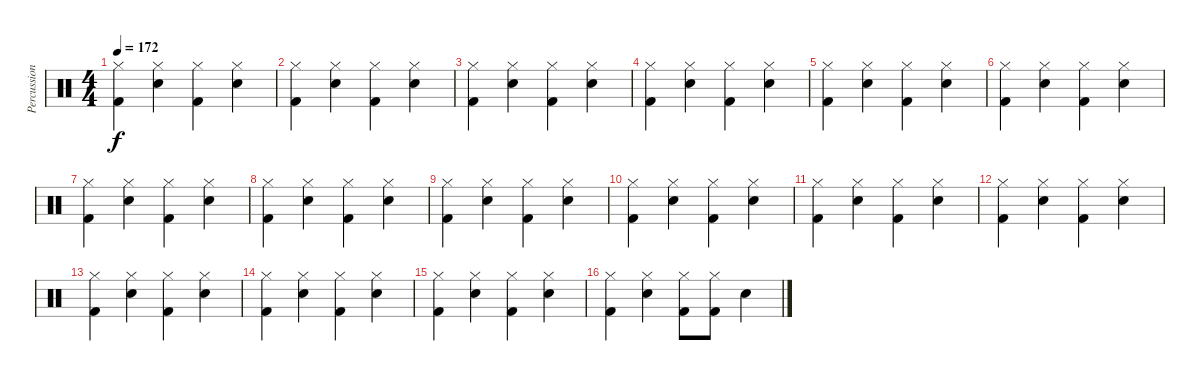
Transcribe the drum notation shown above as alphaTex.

\track ("Percussion" "Percussion") {instrument percussion}
\staff {score}
\articulation defaults
\ts (4 4)
\tempo 172
\clef neutral
\ks c
("Hi-Hat (closed)" "Kick (hit) 2").4{dy f} ("Hi-Hat (closed)" "Snare (hit) 2").4 ("Hi-Hat (closed)" "Kick (hit) 2").4 ("Hi-Hat (closed)" "Snare (hit) 2").4 |
("Hi-Hat (closed)" "Kick (hit) 2").4 ("Hi-Hat (closed)" "Snare (hit) 2").4 ("Hi-Hat (closed)" "Kick (hit) 2").4 ("Hi-Hat (closed)" "Snare (hit) 2").4 |
("Hi-Hat (closed)" "Kick (hit) 2").4 ("Hi-Hat (closed)" "Snare (hit) 2").4 ("Hi-Hat (closed)" "Kick (hit) 2").4 ("Hi-Hat (closed)" "Snare (hit) 2").4 |
("Hi-Hat (closed)" "Kick (hit) 2").4 ("Hi-Hat (closed)" "Snare (hit) 2").4 ("Hi-Hat (closed)" "Kick (hit) 2").4 ("Hi-Hat (closed)" "Snare (hit) 2").4 |
("Hi-Hat (closed)" "Kick (hit) 2").4 ("Hi-Hat (closed)" "Snare (hit) 2").4 ("Hi-Hat (closed)" "Kick (hit) 2").4 ("Hi-Hat (closed)" "Snare (hit) 2").4 |
("Hi-Hat (closed)" "Kick (hit) 2").4 ("Hi-Hat (closed)" "Snare (hit) 2").4 ("Hi-Hat (closed)" "Kick (hit) 2").4 ("Hi-Hat (closed)" "Snare (hit) 2").4 |
("Hi-Hat (closed)" "Kick (hit) 2").4 ("Hi-Hat (closed)" "Snare (hit) 2").4 ("Hi-Hat (closed)" "Kick (hit) 2").4 ("Hi-Hat (closed)" "Snare (hit) 2").4 |
("Hi-Hat (closed)" "Kick (hit) 2").4 ("Hi-Hat (closed)" "Snare (hit) 2").4 ("Hi-Hat (closed)" "Kick (hit) 2").4 ("Hi-Hat (closed)" "Snare (hit) 2").4 |
("Hi-Hat (closed)" "Kick (hit) 2").4 ("Hi-Hat (closed)" "Snare (hit) 2").4 ("Hi-Hat (closed)" "Kick (hit) 2").4 ("Hi-Hat (closed)" "Snare (hit) 2").4 |
("Hi-Hat (closed)" "Kick (hit) 2").4 ("Hi-Hat (closed)" "Snare (hit) 2").4 ("Hi-Hat (closed)" "Kick (hit) 2").4 ("Hi-Hat (closed)" "Snare (hit) 2").4 |
("Hi-Hat (closed)" "Kick (hit) 2").4 ("Hi-Hat (closed)" "Snare (hit) 2").4 ("Hi-Hat (closed)" "Kick (hit) 2").4 ("Hi-Hat (closed)" "Snare (hit) 2").4 |
("Hi-Hat (closed)" "Kick (hit) 2").4 ("Hi-Hat (closed)" "Snare (hit) 2").4 ("Hi-Hat (closed)" "Kick (hit) 2").4 ("Hi-Hat (closed)" "Snare (hit) 2").4 |
("Hi-Hat (closed)" "Kick (hit) 2").4 ("Hi-Hat (closed)" "Snare (hit) 2").4 ("Hi-Hat (closed)" "Kick (hit) 2").4 ("Hi-Hat (closed)" "Snare (hit) 2").4 |
("Hi-Hat (closed)" "Kick (hit) 2").4 ("Hi-Hat (closed)" "Snare (hit) 2").4 ("Hi-Hat (closed)" "Kick (hit) 2").4 ("Hi-Hat (closed)" "Snare (hit) 2").4 |
("Hi-Hat (closed)" "Kick (hit) 2").4 ("Hi-Hat (closed)" "Snare (hit) 2").4 ("Hi-Hat (closed)" "Kick (hit) 2").4 ("Hi-Hat (closed)" "Snare (hit) 2").4 |
("Hi-Hat (closed)" "Kick (hit) 2").4 ("Hi-Hat (closed)" "Snare (hit) 2").4 ("Hi-Hat (closed)" "Kick (hit) 2").8 ("Hi-Hat (closed)" "Kick (hit) 2").8 "Snare (hit) 2".4
